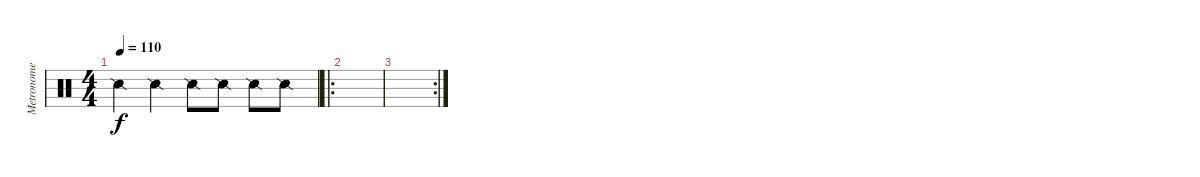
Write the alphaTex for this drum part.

\track ("Metronome" "Metronome") {instrument percussion}
\staff {score}
\articulation defaults
\ts (4 4)
\tempo 110
\clef neutral
\ks c "Snare (side stick) 2".4{dy f} "Snare (side stick) 2".4 "Snare (side stick) 2".8 "Snare (side stick) 2".8 "Snare (side stick) 2".8 "Snare (side stick) 2".8
|
\ro
|
\rc 2
